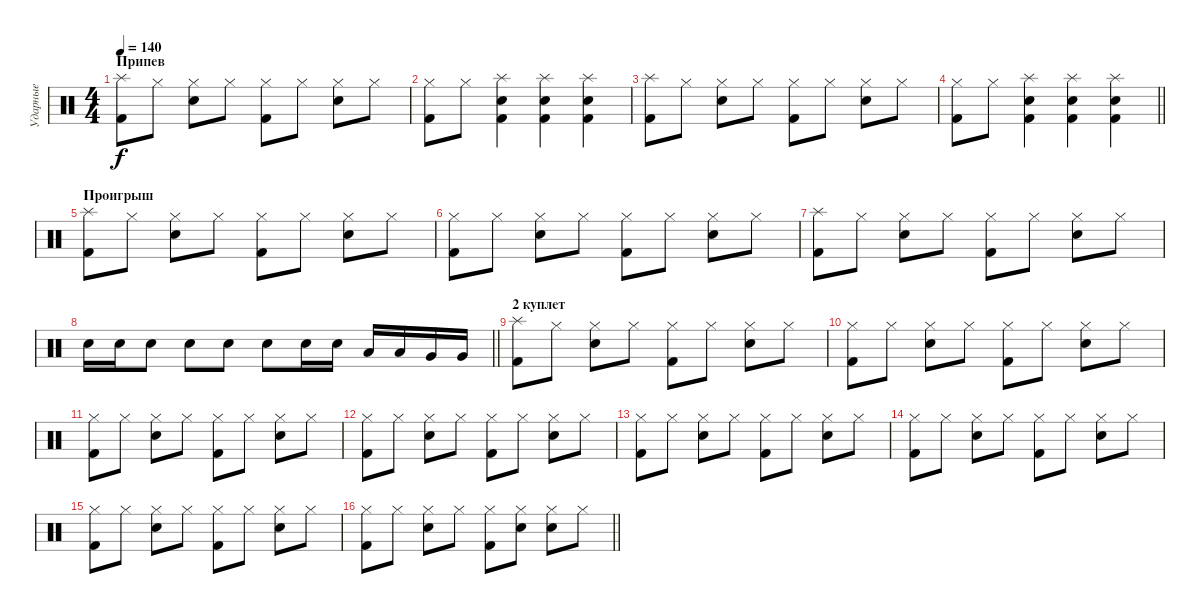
\track ("Ударные" "Ударные") {instrument percussion}
\staff {score}
\articulation defaults
\ts (4 4)
\section ("" "Припев")
\tempo 140
\clef neutral
\ks c
("Splash (hit)" "Kick (hit) 2").8{dy f} "Hi-Hat (closed)".8 ("Hi-Hat (closed)" "Snare (hit) 2").8 "Hi-Hat (closed)".8 ("Hi-Hat (closed)" "Kick (hit) 2").8 "Hi-Hat (closed)".8 ("Hi-Hat (closed)" "Snare (hit) 2").8 "Hi-Hat (closed)".8 |
("Hi-Hat (closed)" "Kick (hit) 2").8 "Hi-Hat (closed)".8 ("Splash (hit)" "Snare (hit) 2" "Kick (hit) 2").4 ("Splash (hit)" "Snare (hit) 2" "Kick (hit) 2").4 ("Splash (hit)" "Snare (hit) 2" "Kick (hit) 2").4 |
("Splash (hit)" "Kick (hit) 2").8 "Hi-Hat (closed)".8 ("Hi-Hat (closed)" "Snare (hit) 2").8 "Hi-Hat (closed)".8 ("Hi-Hat (closed)" "Kick (hit) 2").8 "Hi-Hat (closed)".8 ("Hi-Hat (closed)" "Snare (hit) 2").8 "Hi-Hat (closed)".8 |
\barLineRight lightlight
("Hi-Hat (closed)" "Kick (hit) 2").8 "Hi-Hat (closed)".8 ("Splash (hit)" "Snare (hit) 2" "Kick (hit) 2").4 ("Splash (hit)" "Snare (hit) 2" "Kick (hit) 2").4 ("Splash (hit)" "Snare (hit) 2" "Kick (hit) 2").4 |
\section ("" "Проигрыш")
("Splash (hit)" "Kick (hit) 2").8 "Hi-Hat (closed)".8 ("Hi-Hat (closed)" "Snare (hit) 2").8 "Hi-Hat (closed)".8 ("Hi-Hat (closed)" "Kick (hit) 2").8 "Hi-Hat (closed)".8 ("Hi-Hat (closed)" "Snare (hit) 2").8 "Hi-Hat (closed)".8 |
("Hi-Hat (closed)" "Kick (hit) 2").8 "Hi-Hat (closed)".8 ("Hi-Hat (closed)" "Snare (hit) 2").8 "Hi-Hat (closed)".8 ("Hi-Hat (closed)" "Kick (hit) 2").8 "Hi-Hat (closed)".8 ("Hi-Hat (closed)" "Snare (hit) 2").8 "Hi-Hat (closed)".8 |
("Splash (hit)" "Kick (hit) 2").8 "Hi-Hat (closed)".8 ("Hi-Hat (closed)" "Snare (hit) 2").8 "Hi-Hat (closed)".8 ("Hi-Hat (closed)" "Kick (hit) 2").8 "Hi-Hat (closed)".8 ("Hi-Hat (closed)" "Snare (hit) 2").8 "Hi-Hat (closed)".8 |
\barLineRight lightlight "Snare (hit) 2".16 "Snare (hit) 2".16 "Snare (hit) 2".8 "Snare (hit) 2".8 "Snare (hit) 2".8 "Snare (hit) 2".8 "Snare (hit) 2".16 "Snare (hit) 2".16 "Low Tom (hit)".16 "Low Tom (hit)".16 "Very Low Tom (hit)".16 "Very Low Tom (hit)".16
|
\section ("" "2 куплет")
("Splash (hit)" "Kick (hit) 2").8 "Hi-Hat (closed)".8 ("Hi-Hat (closed)" "Snare (hit) 2").8 "Hi-Hat (closed)".8 ("Hi-Hat (closed)" "Kick (hit) 2").8 "Hi-Hat (closed)".8 ("Hi-Hat (closed)" "Snare (hit) 2").8 "Hi-Hat (closed)".8 |
("Hi-Hat (closed)" "Kick (hit) 2").8 "Hi-Hat (closed)".8 ("Hi-Hat (closed)" "Snare (hit) 2").8 "Hi-Hat (closed)".8 ("Hi-Hat (closed)" "Kick (hit) 2").8 "Hi-Hat (closed)".8 ("Hi-Hat (closed)" "Snare (hit) 2").8 "Hi-Hat (closed)".8 |
("Hi-Hat (closed)" "Kick (hit) 2").8 "Hi-Hat (closed)".8 ("Hi-Hat (closed)" "Snare (hit) 2").8 "Hi-Hat (closed)".8 ("Hi-Hat (closed)" "Kick (hit) 2").8 "Hi-Hat (closed)".8 ("Hi-Hat (closed)" "Snare (hit) 2").8 "Hi-Hat (closed)".8 |
("Hi-Hat (closed)" "Kick (hit) 2").8 "Hi-Hat (closed)".8 ("Hi-Hat (closed)" "Snare (hit) 2").8 "Hi-Hat (closed)".8 ("Hi-Hat (closed)" "Kick (hit) 2").8 "Hi-Hat (closed)".8 ("Hi-Hat (closed)" "Snare (hit) 2").8 "Hi-Hat (closed)".8 |
("Hi-Hat (closed)" "Kick (hit) 2").8 "Hi-Hat (closed)".8 ("Hi-Hat (closed)" "Snare (hit) 2").8 "Hi-Hat (closed)".8 ("Hi-Hat (closed)" "Kick (hit) 2").8 "Hi-Hat (closed)".8 ("Hi-Hat (closed)" "Snare (hit) 2").8 "Hi-Hat (closed)".8 |
("Hi-Hat (closed)" "Kick (hit) 2").8 "Hi-Hat (closed)".8 ("Hi-Hat (closed)" "Snare (hit) 2").8 "Hi-Hat (closed)".8 ("Hi-Hat (closed)" "Kick (hit) 2").8 "Hi-Hat (closed)".8 ("Hi-Hat (closed)" "Snare (hit) 2").8 "Hi-Hat (closed)".8 |
("Hi-Hat (closed)" "Kick (hit) 2").8 "Hi-Hat (closed)".8 ("Hi-Hat (closed)" "Snare (hit) 2").8 "Hi-Hat (closed)".8 ("Hi-Hat (closed)" "Kick (hit) 2").8 "Hi-Hat (closed)".8 ("Hi-Hat (closed)" "Snare (hit) 2").8 "Hi-Hat (closed)".8 |
\barLineRight lightlight
("Hi-Hat (closed)" "Kick (hit) 2").8 "Hi-Hat (closed)".8 ("Hi-Hat (closed)" "Snare (hit) 2").8 "Hi-Hat (closed)".8 ("Hi-Hat (closed)" "Kick (hit) 2").8 ("Hi-Hat (closed)" "Snare (hit) 2").8 ("Hi-Hat (closed)" "Snare (hit) 2").8 "Hi-Hat (closed)".8
